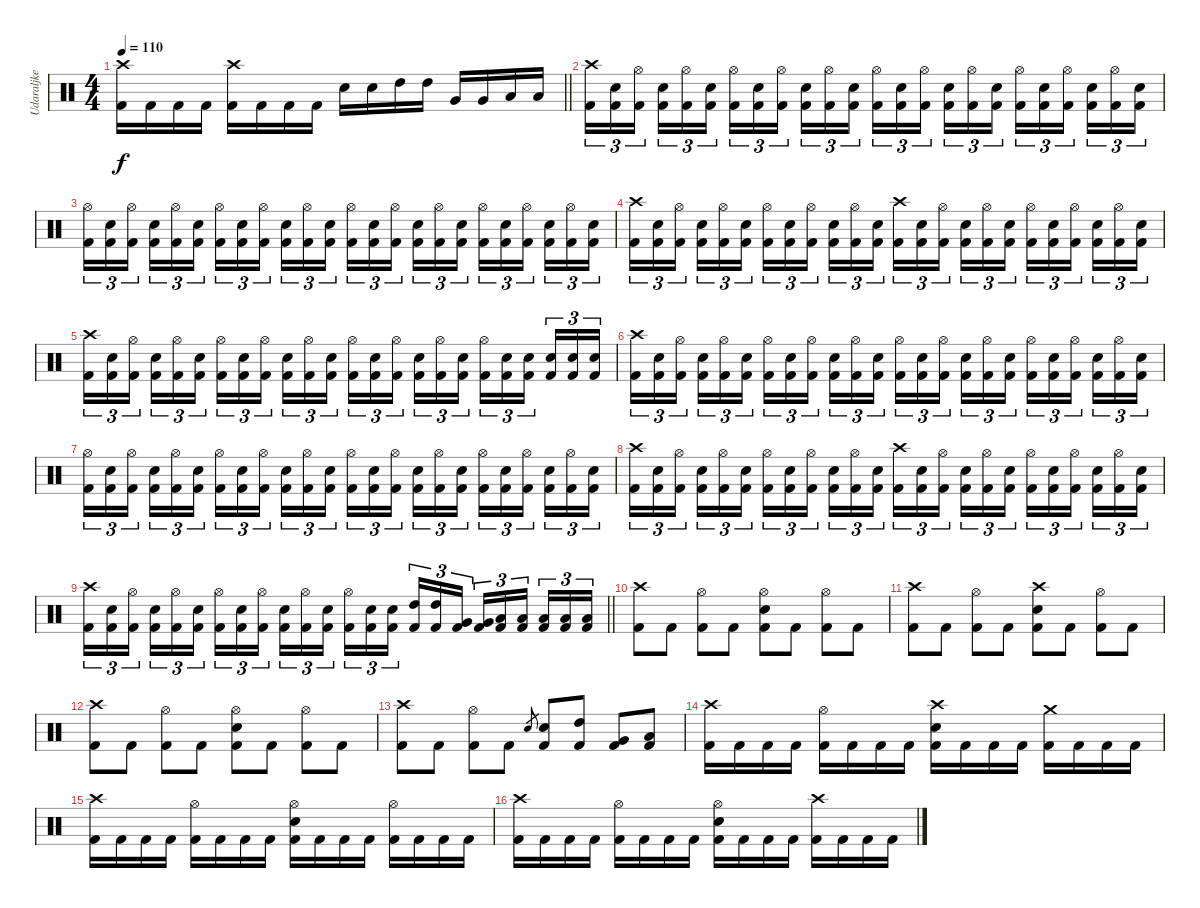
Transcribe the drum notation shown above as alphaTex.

\track ("Udaraljke" "Udaraljke") {instrument percussion}
\staff {score}
\articulation defaults
\ts (4 4)
\tempo 110
\clef neutral
\barLineRight lightlight
\ks c
("Crash high (hit)" "Kick (hit) 2").16{dy f} "Kick (hit) 2".16 "Kick (hit) 2".16 "Kick (hit) 2".16 ("Crash high (hit)" "Kick (hit) 2").16 "Kick (hit) 2".16 "Kick (hit) 2".16 "Kick (hit) 2".16 "Electric Snare (hit)".16 "Electric Snare (hit)".16 "High Tom (hit)".16 "High Tom (hit)".16 "Very Low Tom (hit)".16 "Very Low Tom (hit)".16 "Low Tom (hit)".16 "Low Tom (hit)".16 |
\section ("" "")
("Crash high (hit)" "Kick (hit) 2").16{tu (3 2)} ("Electric Snare (hit)" "Kick (hit) 2").16{tu (3 2)} ("Hi-Hat (open)" "Kick (hit) 2").16{tu (3 2) beam splitsecondary} ("Electric Snare (hit)" "Kick (hit) 2").16{tu (3 2)} ("Hi-Hat (open)" "Kick (hit) 2").16{tu (3 2)} ("Electric Snare (hit)" "Kick (hit) 2").16{tu (3 2)} ("Hi-Hat (open)" "Kick (hit) 2").16{tu (3 2)} ("Electric Snare (hit)" "Kick (hit) 2").16{tu (3 2)} ("Hi-Hat (open)" "Kick (hit) 2").16{tu (3 2) beam splitsecondary} ("Electric Snare (hit)" "Kick (hit) 2").16{tu (3 2)} ("Hi-Hat (open)" "Kick (hit) 2").16{tu (3 2)} ("Electric Snare (hit)" "Kick (hit) 2").16{tu (3 2)} ("Hi-Hat (open)" "Kick (hit) 2").16{tu (3 2)} ("Electric Snare (hit)" "Kick (hit) 2").16{tu (3 2)} ("Hi-Hat (open)" "Kick (hit) 2").16{tu (3 2) beam splitsecondary} ("Electric Snare (hit)" "Kick (hit) 2").16{tu (3 2)} ("Hi-Hat (open)" "Kick (hit) 2").16{tu (3 2)} ("Electric Snare (hit)" "Kick (hit) 2").16{tu (3 2)} ("Hi-Hat (open)" "Kick (hit) 2").16{tu (3 2)} ("Electric Snare (hit)" "Kick (hit) 2").16{tu (3 2)} ("Hi-Hat (open)" "Kick (hit) 2").16{tu (3 2) beam splitsecondary} ("Electric Snare (hit)" "Kick (hit) 2").16{tu (3 2)} ("Hi-Hat (open)" "Kick (hit) 2").16{tu (3 2)} ("Electric Snare (hit)" "Kick (hit) 2").16{tu (3 2)} |
("Hi-Hat (open)" "Kick (hit) 2").16{tu (3 2)} ("Electric Snare (hit)" "Kick (hit) 2").16{tu (3 2)} ("Hi-Hat (open)" "Kick (hit) 2").16{tu (3 2) beam splitsecondary} ("Electric Snare (hit)" "Kick (hit) 2").16{tu (3 2)} ("Hi-Hat (open)" "Kick (hit) 2").16{tu (3 2)} ("Electric Snare (hit)" "Kick (hit) 2").16{tu (3 2)} ("Hi-Hat (open)" "Kick (hit) 2").16{tu (3 2)} ("Electric Snare (hit)" "Kick (hit) 2").16{tu (3 2)} ("Hi-Hat (open)" "Kick (hit) 2").16{tu (3 2) beam splitsecondary} ("Electric Snare (hit)" "Kick (hit) 2").16{tu (3 2)} ("Hi-Hat (open)" "Kick (hit) 2").16{tu (3 2)} ("Electric Snare (hit)" "Kick (hit) 2").16{tu (3 2)} ("Hi-Hat (open)" "Kick (hit) 2").16{tu (3 2)} ("Electric Snare (hit)" "Kick (hit) 2").16{tu (3 2)} ("Hi-Hat (open)" "Kick (hit) 2").16{tu (3 2) beam splitsecondary} ("Electric Snare (hit)" "Kick (hit) 2").16{tu (3 2)} ("Hi-Hat (open)" "Kick (hit) 2").16{tu (3 2)} ("Electric Snare (hit)" "Kick (hit) 2").16{tu (3 2)} ("Hi-Hat (open)" "Kick (hit) 2").16{tu (3 2)} ("Electric Snare (hit)" "Kick (hit) 2").16{tu (3 2)} ("Hi-Hat (open)" "Kick (hit) 2").16{tu (3 2) beam splitsecondary} ("Electric Snare (hit)" "Kick (hit) 2").16{tu (3 2)} ("Hi-Hat (open)" "Kick (hit) 2").16{tu (3 2)} ("Electric Snare (hit)" "Kick (hit) 2").16{tu (3 2)} |
("Crash high (hit)" "Kick (hit) 2").16{tu (3 2)} ("Electric Snare (hit)" "Kick (hit) 2").16{tu (3 2)} ("Hi-Hat (open)" "Kick (hit) 2").16{tu (3 2) beam splitsecondary} ("Electric Snare (hit)" "Kick (hit) 2").16{tu (3 2)} ("Hi-Hat (open)" "Kick (hit) 2").16{tu (3 2)} ("Electric Snare (hit)" "Kick (hit) 2").16{tu (3 2)} ("Hi-Hat (open)" "Kick (hit) 2").16{tu (3 2)} ("Electric Snare (hit)" "Kick (hit) 2").16{tu (3 2)} ("Hi-Hat (open)" "Kick (hit) 2").16{tu (3 2) beam splitsecondary} ("Electric Snare (hit)" "Kick (hit) 2").16{tu (3 2)} ("Hi-Hat (open)" "Kick (hit) 2").16{tu (3 2)} ("Electric Snare (hit)" "Kick (hit) 2").16{tu (3 2)} ("Crash high (hit)" "Kick (hit) 2").16{tu (3 2)} ("Electric Snare (hit)" "Kick (hit) 2").16{tu (3 2)} ("Hi-Hat (open)" "Kick (hit) 2").16{tu (3 2) beam splitsecondary} ("Electric Snare (hit)" "Kick (hit) 2").16{tu (3 2)} ("Hi-Hat (open)" "Kick (hit) 2").16{tu (3 2)} ("Electric Snare (hit)" "Kick (hit) 2").16{tu (3 2)} ("Hi-Hat (open)" "Kick (hit) 2").16{tu (3 2)} ("Electric Snare (hit)" "Kick (hit) 2").16{tu (3 2)} ("Hi-Hat (open)" "Kick (hit) 2").16{tu (3 2) beam splitsecondary} ("Electric Snare (hit)" "Kick (hit) 2").16{tu (3 2)} ("Hi-Hat (open)" "Kick (hit) 2").16{tu (3 2)} ("Electric Snare (hit)" "Kick (hit) 2").16{tu (3 2)} |
("Crash high (hit)" "Kick (hit) 2").16{tu (3 2)} ("Electric Snare (hit)" "Kick (hit) 2").16{tu (3 2)} ("Hi-Hat (open)" "Kick (hit) 2").16{tu (3 2) beam splitsecondary} ("Electric Snare (hit)" "Kick (hit) 2").16{tu (3 2)} ("Hi-Hat (open)" "Kick (hit) 2").16{tu (3 2)} ("Electric Snare (hit)" "Kick (hit) 2").16{tu (3 2)} ("Hi-Hat (open)" "Kick (hit) 2").16{tu (3 2)} ("Electric Snare (hit)" "Kick (hit) 2").16{tu (3 2)} ("Hi-Hat (open)" "Kick (hit) 2").16{tu (3 2) beam splitsecondary} ("Electric Snare (hit)" "Kick (hit) 2").16{tu (3 2)} ("Hi-Hat (open)" "Kick (hit) 2").16{tu (3 2)} ("Electric Snare (hit)" "Kick (hit) 2").16{tu (3 2)} ("Hi-Hat (open)" "Kick (hit) 2").16{tu (3 2)} ("Electric Snare (hit)" "Kick (hit) 2").16{tu (3 2)} ("Hi-Hat (open)" "Kick (hit) 2").16{tu (3 2) beam splitsecondary} ("Electric Snare (hit)" "Kick (hit) 2").16{tu (3 2)} ("Hi-Hat (open)" "Kick (hit) 2").16{tu (3 2)} ("Electric Snare (hit)" "Kick (hit) 2").16{tu (3 2)} ("Hi-Hat (open)" "Kick (hit) 2").16{tu (3 2)} ("Electric Snare (hit)" "Kick (hit) 2").16{tu (3 2)} ("Electric Snare (hit)" "Kick (hit) 2").16{tu (3 2) beam splitsecondary} ("Electric Snare (hit)" "Kick (hit) 2").16{tu (3 2)} ("Electric Snare (hit)" "Kick (hit) 2").16{tu (3 2)} ("Electric Snare (hit)" "Kick (hit) 2").16{tu (3 2)} |
("Crash high (hit)" "Kick (hit) 2").16{tu (3 2)} ("Electric Snare (hit)" "Kick (hit) 2").16{tu (3 2)} ("Hi-Hat (open)" "Kick (hit) 2").16{tu (3 2) beam splitsecondary} ("Electric Snare (hit)" "Kick (hit) 2").16{tu (3 2)} ("Hi-Hat (open)" "Kick (hit) 2").16{tu (3 2)} ("Electric Snare (hit)" "Kick (hit) 2").16{tu (3 2)} ("Hi-Hat (open)" "Kick (hit) 2").16{tu (3 2)} ("Electric Snare (hit)" "Kick (hit) 2").16{tu (3 2)} ("Hi-Hat (open)" "Kick (hit) 2").16{tu (3 2) beam splitsecondary} ("Electric Snare (hit)" "Kick (hit) 2").16{tu (3 2)} ("Hi-Hat (open)" "Kick (hit) 2").16{tu (3 2)} ("Electric Snare (hit)" "Kick (hit) 2").16{tu (3 2)} ("Hi-Hat (open)" "Kick (hit) 2").16{tu (3 2)} ("Electric Snare (hit)" "Kick (hit) 2").16{tu (3 2)} ("Hi-Hat (open)" "Kick (hit) 2").16{tu (3 2) beam splitsecondary} ("Electric Snare (hit)" "Kick (hit) 2").16{tu (3 2)} ("Hi-Hat (open)" "Kick (hit) 2").16{tu (3 2)} ("Electric Snare (hit)" "Kick (hit) 2").16{tu (3 2)} ("Hi-Hat (open)" "Kick (hit) 2").16{tu (3 2)} ("Electric Snare (hit)" "Kick (hit) 2").16{tu (3 2)} ("Hi-Hat (open)" "Kick (hit) 2").16{tu (3 2) beam splitsecondary} ("Electric Snare (hit)" "Kick (hit) 2").16{tu (3 2)} ("Hi-Hat (open)" "Kick (hit) 2").16{tu (3 2)} ("Electric Snare (hit)" "Kick (hit) 2").16{tu (3 2)} |
("Hi-Hat (open)" "Kick (hit) 2").16{tu (3 2)} ("Electric Snare (hit)" "Kick (hit) 2").16{tu (3 2)} ("Hi-Hat (open)" "Kick (hit) 2").16{tu (3 2) beam splitsecondary} ("Electric Snare (hit)" "Kick (hit) 2").16{tu (3 2)} ("Hi-Hat (open)" "Kick (hit) 2").16{tu (3 2)} ("Electric Snare (hit)" "Kick (hit) 2").16{tu (3 2)} ("Hi-Hat (open)" "Kick (hit) 2").16{tu (3 2)} ("Electric Snare (hit)" "Kick (hit) 2").16{tu (3 2)} ("Hi-Hat (open)" "Kick (hit) 2").16{tu (3 2) beam splitsecondary} ("Electric Snare (hit)" "Kick (hit) 2").16{tu (3 2)} ("Hi-Hat (open)" "Kick (hit) 2").16{tu (3 2)} ("Electric Snare (hit)" "Kick (hit) 2").16{tu (3 2)} ("Hi-Hat (open)" "Kick (hit) 2").16{tu (3 2)} ("Electric Snare (hit)" "Kick (hit) 2").16{tu (3 2)} ("Hi-Hat (open)" "Kick (hit) 2").16{tu (3 2) beam splitsecondary} ("Electric Snare (hit)" "Kick (hit) 2").16{tu (3 2)} ("Hi-Hat (open)" "Kick (hit) 2").16{tu (3 2)} ("Electric Snare (hit)" "Kick (hit) 2").16{tu (3 2)} ("Hi-Hat (open)" "Kick (hit) 2").16{tu (3 2)} ("Electric Snare (hit)" "Kick (hit) 2").16{tu (3 2)} ("Hi-Hat (open)" "Kick (hit) 2").16{tu (3 2) beam splitsecondary} ("Electric Snare (hit)" "Kick (hit) 2").16{tu (3 2)} ("Hi-Hat (open)" "Kick (hit) 2").16{tu (3 2)} ("Electric Snare (hit)" "Kick (hit) 2").16{tu (3 2)} |
("Crash high (hit)" "Kick (hit) 2").16{tu (3 2)} ("Electric Snare (hit)" "Kick (hit) 2").16{tu (3 2)} ("Hi-Hat (open)" "Kick (hit) 2").16{tu (3 2) beam splitsecondary} ("Electric Snare (hit)" "Kick (hit) 2").16{tu (3 2)} ("Hi-Hat (open)" "Kick (hit) 2").16{tu (3 2)} ("Electric Snare (hit)" "Kick (hit) 2").16{tu (3 2)} ("Hi-Hat (open)" "Kick (hit) 2").16{tu (3 2)} ("Electric Snare (hit)" "Kick (hit) 2").16{tu (3 2)} ("Hi-Hat (open)" "Kick (hit) 2").16{tu (3 2) beam splitsecondary} ("Electric Snare (hit)" "Kick (hit) 2").16{tu (3 2)} ("Hi-Hat (open)" "Kick (hit) 2").16{tu (3 2)} ("Electric Snare (hit)" "Kick (hit) 2").16{tu (3 2)} ("Crash high (hit)" "Kick (hit) 2").16{tu (3 2)} ("Electric Snare (hit)" "Kick (hit) 2").16{tu (3 2)} ("Hi-Hat (open)" "Kick (hit) 2").16{tu (3 2) beam splitsecondary} ("Electric Snare (hit)" "Kick (hit) 2").16{tu (3 2)} ("Hi-Hat (open)" "Kick (hit) 2").16{tu (3 2)} ("Electric Snare (hit)" "Kick (hit) 2").16{tu (3 2)} ("Hi-Hat (open)" "Kick (hit) 2").16{tu (3 2)} ("Electric Snare (hit)" "Kick (hit) 2").16{tu (3 2)} ("Hi-Hat (open)" "Kick (hit) 2").16{tu (3 2) beam splitsecondary} ("Electric Snare (hit)" "Kick (hit) 2").16{tu (3 2)} ("Hi-Hat (open)" "Kick (hit) 2").16{tu (3 2)} ("Electric Snare (hit)" "Kick (hit) 2").16{tu (3 2)} |
\barLineRight lightlight
("Crash high (hit)" "Kick (hit) 2").16{tu (3 2)} ("Electric Snare (hit)" "Kick (hit) 2").16{tu (3 2)} ("Hi-Hat (open)" "Kick (hit) 2").16{tu (3 2) beam splitsecondary} ("Electric Snare (hit)" "Kick (hit) 2").16{tu (3 2)} ("Hi-Hat (open)" "Kick (hit) 2").16{tu (3 2)} ("Electric Snare (hit)" "Kick (hit) 2").16{tu (3 2)} ("Hi-Hat (open)" "Kick (hit) 2").16{tu (3 2)} ("Electric Snare (hit)" "Kick (hit) 2").16{tu (3 2)} ("Hi-Hat (open)" "Kick (hit) 2").16{tu (3 2) beam splitsecondary} ("Electric Snare (hit)" "Kick (hit) 2").16{tu (3 2)} ("Hi-Hat (open)" "Kick (hit) 2").16{tu (3 2)} ("Electric Snare (hit)" "Kick (hit) 2").16{tu (3 2)} ("Hi-Hat (open)" "Kick (hit) 2").16{tu (3 2)} ("Electric Snare (hit)" "Kick (hit) 2").16{tu (3 2)} ("Electric Snare (hit)" "Kick (hit) 2").16{tu (3 2) beam splitsecondary} ("High Tom (hit)" "Kick (hit) 2").16{tu (3 2)} ("High Tom (hit)" "Kick (hit) 2").16{tu (3 2)} ("Very Low Tom (hit)" "Kick (hit) 2").16{tu (3 2)} ("Very Low Tom (hit)" "Kick (hit) 2").16{tu (3 2)} ("Low Tom (hit)" "Kick (hit) 2").16{tu (3 2)} ("Low Tom (hit)" "Kick (hit) 2").16{tu (3 2) beam splitsecondary} ("Low Tom (hit)" "Kick (hit) 2").16{tu (3 2)} ("Low Tom (hit)" "Kick (hit) 2").16{tu (3 2)} ("Low Tom (hit)" "Kick (hit) 2").16{tu (3 2)} |
\section ("" "")
("Crash high (hit)" "Kick (hit) 2").8 "Kick (hit) 2".8 ("Hi-Hat (open)" "Kick (hit) 2").8 "Kick (hit) 2".8 ("Hi-Hat (open)" "Electric Snare (hit)" "Kick (hit) 2").8 "Kick (hit) 2".8 ("Hi-Hat (open)" "Kick (hit) 2").8 "Kick (hit) 2".8 |
("Crash high (hit)" "Kick (hit) 2").8 "Kick (hit) 2".8 ("Hi-Hat (open)" "Kick (hit) 2").8 "Kick (hit) 2".8 ("Crash high (hit)" "Electric Snare (hit)" "Kick (hit) 2").8 "Kick (hit) 2".8 ("Hi-Hat (open)" "Kick (hit) 2").8 "Kick (hit) 2".8 |
("Crash high (hit)" "Kick (hit) 2").8 "Kick (hit) 2".8 ("Hi-Hat (open)" "Kick (hit) 2").8 "Kick (hit) 2".8 ("Hi-Hat (open)" "Electric Snare (hit)" "Kick (hit) 2").8 "Kick (hit) 2".8 ("Hi-Hat (open)" "Kick (hit) 2").8 "Kick (hit) 2".8 |
("Crash high (hit)" "Kick (hit) 2").8 "Kick (hit) 2".8 ("Hi-Hat (open)" "Kick (hit) 2").8 "Kick (hit) 2".8 "Electric Snare (hit)".8{gr} ("Electric Snare (hit)" "Kick (hit) 2").8 ("High Tom (hit)" "Kick (hit) 2").8 ("Very Low Tom (hit)" "Kick (hit) 2").8 ("Low Tom (hit)" "Kick (hit) 2").8 |
("Crash high (hit)" "Kick (hit) 2").16 "Kick (hit) 2".16 "Kick (hit) 2".16 "Kick (hit) 2".16 ("Hi-Hat (open)" "Kick (hit) 2").16 "Kick (hit) 2".16 "Kick (hit) 2".16 "Kick (hit) 2".16 ("Crash high (hit)" "Electric Snare (hit)" "Kick (hit) 2").16 "Kick (hit) 2".16 "Kick (hit) 2".16 "Kick (hit) 2".16 ("Crash medium (hit)" "Kick (hit) 2").16 "Kick (hit) 2".16 "Kick (hit) 2".16 "Kick (hit) 2".16 |
("Crash high (hit)" "Kick (hit) 2").16 "Kick (hit) 2".16 "Kick (hit) 2".16 "Kick (hit) 2".16 ("Hi-Hat (open)" "Kick (hit) 2").16 "Kick (hit) 2".16 "Kick (hit) 2".16 "Kick (hit) 2".16 ("Hi-Hat (open)" "Electric Snare (hit)" "Kick (hit) 2").16 "Kick (hit) 2".16 "Kick (hit) 2".16 "Kick (hit) 2".16 ("Hi-Hat (open)" "Kick (hit) 2").16 "Kick (hit) 2".16 "Kick (hit) 2".16 "Kick (hit) 2".16 |
("Crash high (hit)" "Kick (hit) 2").16 "Kick (hit) 2".16 "Kick (hit) 2".16 "Kick (hit) 2".16 ("Hi-Hat (open)" "Kick (hit) 2").16 "Kick (hit) 2".16 "Kick (hit) 2".16 "Kick (hit) 2".16 ("Hi-Hat (open)" "Electric Snare (hit)" "Kick (hit) 2").16 "Kick (hit) 2".16 "Kick (hit) 2".16 "Kick (hit) 2".16 ("Crash high (hit)" "Kick (hit) 2").16 "Kick (hit) 2".16 "Kick (hit) 2".16 "Kick (hit) 2".16
